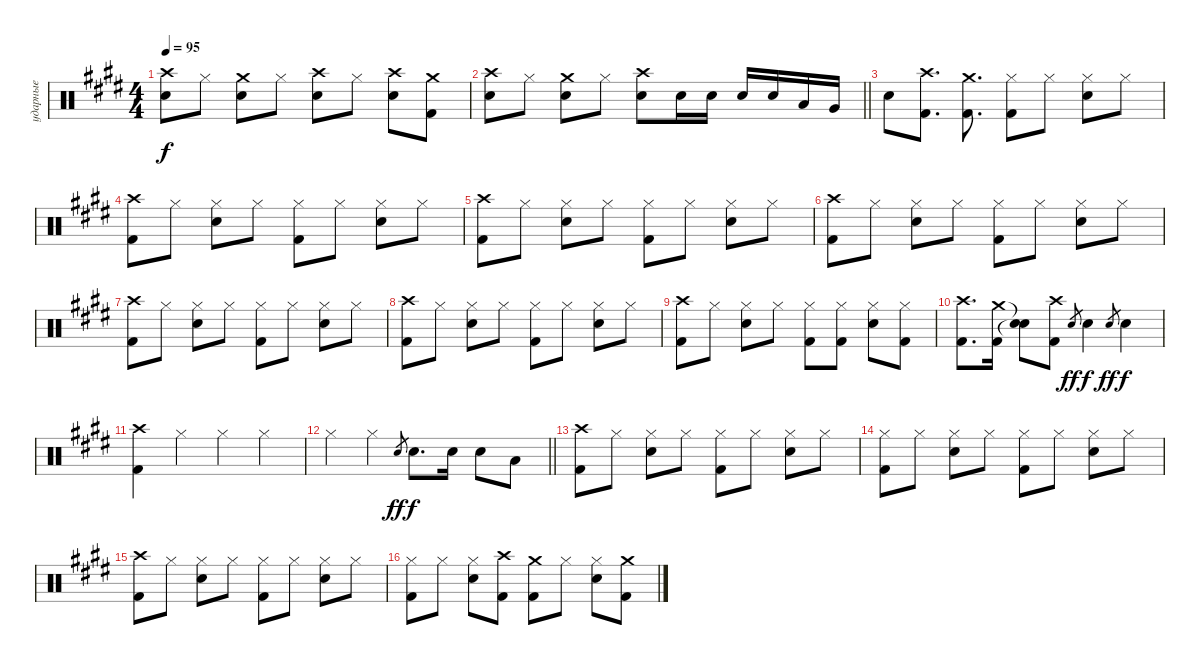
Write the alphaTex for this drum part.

\track ("ударные" "ударные") {instrument percussion}
\staff {score}
\articulation defaults
\ts (4 4)
\tempo 95
\clef neutral
\ks e
("Crash high (hit)" "Snare (hit) 2").8{dy f} "Hi-Hat (closed)".8 ("Crash medium (hit)" "Snare (hit) 2").8 "Hi-Hat (closed)".8 ("Crash high (hit)" "Snare (hit) 2").8 "Hi-Hat (closed)".8 ("Crash high (hit)" "Snare (hit) 2").8 ("Crash medium (hit)" "Kick (hit) 2").8 |
\barLineRight lightlight
("Crash high (hit)" "Snare (hit) 2").8 "Hi-Hat (closed)".8 ("Crash medium (hit)" "Snare (hit) 2").8 "Hi-Hat (closed)".8 ("Crash high (hit)" "Snare (hit) 2").8 "Snare (hit) 2".16 "Snare (hit) 2".16 "Snare (hit) 2".16 "Snare (hit) 2".16 "Low Tom (hit)".16 "Very Low Tom (hit)".16 |
\section ("" "")
"Snare (hit) 2".8 ("Crash high (hit)" "Kick (hit) 2").8{d} ("Crash medium (hit)" "Kick (hit) 2").8{d} ("Hi-Hat (closed)" "Kick (hit) 2").8 "Hi-Hat (closed)".8 ("Hi-Hat (closed)" "Snare (hit) 2").8 "Hi-Hat (closed)".8 |
("Crash high (hit)" "Kick (hit) 2").8 "Hi-Hat (closed)".8 ("Hi-Hat (closed)" "Snare (hit) 2").8 "Hi-Hat (closed)".8 ("Hi-Hat (closed)" "Kick (hit) 2").8 "Hi-Hat (closed)".8 ("Hi-Hat (closed)" "Snare (hit) 2").8 "Hi-Hat (closed)".8 |
("Crash high (hit)" "Kick (hit) 2").8 "Hi-Hat (closed)".8 ("Hi-Hat (closed)" "Snare (hit) 2").8 "Hi-Hat (closed)".8 ("Hi-Hat (closed)" "Kick (hit) 2").8 "Hi-Hat (closed)".8 ("Hi-Hat (closed)" "Snare (hit) 2").8 "Hi-Hat (closed)".8 |
("Crash high (hit)" "Kick (hit) 2").8 "Hi-Hat (closed)".8 ("Hi-Hat (closed)" "Snare (hit) 2").8 "Hi-Hat (closed)".8 ("Hi-Hat (closed)" "Kick (hit) 2").8 "Hi-Hat (closed)".8 ("Hi-Hat (closed)" "Snare (hit) 2").8 "Hi-Hat (closed)".8 |
("Crash high (hit)" "Kick (hit) 2").8 "Hi-Hat (closed)".8 ("Hi-Hat (closed)" "Snare (hit) 2").8 "Hi-Hat (closed)".8 ("Hi-Hat (closed)" "Kick (hit) 2").8 "Hi-Hat (closed)".8 ("Hi-Hat (closed)" "Snare (hit) 2").8 "Hi-Hat (closed)".8 |
("Crash high (hit)" "Kick (hit) 2").8 "Hi-Hat (closed)".8 ("Hi-Hat (closed)" "Snare (hit) 2").8 "Hi-Hat (closed)".8 ("Hi-Hat (closed)" "Kick (hit) 2").8 "Hi-Hat (closed)".8 ("Hi-Hat (closed)" "Snare (hit) 2").8 "Hi-Hat (closed)".8 |
("Crash high (hit)" "Kick (hit) 2").8 "Hi-Hat (closed)".8 ("Hi-Hat (closed)" "Snare (hit) 2").8 "Hi-Hat (closed)".8 ("Hi-Hat (closed)" "Kick (hit) 2").8 ("Hi-Hat (closed)" "Kick (hit) 2").8 ("Hi-Hat (closed)" "Snare (hit) 2").8 ("Hi-Hat (closed)" "Kick (hit) 2").8 |
("Crash high (hit)" "Kick (hit) 2").8{d} ("Crash medium (hit)" "Kick (hit) 2").16 ("Snare (hit)"{t} "Snare (hit)"{t}).8 ("Crash high (hit)" "Kick (hit) 2").8 "Snare (hit) 2".8{gr dy ff} "Snare (hit) 2".4{dy f} "Snare (hit) 2".8{gr dy ff} "Snare (hit) 2".4{dy f} |
("Crash high (hit)" "Kick (hit) 2").4 "Hi-Hat (closed)".4 "Hi-Hat (closed)".4 "Hi-Hat (closed)".4 |
\barLineRight lightlight "Hi-Hat (closed)".4 "Hi-Hat (closed)".4 "Snare (hit) 2".8{gr dy ff} "Snare (hit) 2".8{d dy f} "Snare (hit) 2".16 "Snare (hit) 2".8 "Low Tom (hit)".8
|
\section ("" "")
("Crash high (hit)" "Kick (hit) 2").8 "Hi-Hat (closed)".8 ("Hi-Hat (closed)" "Snare (hit) 2").8 "Hi-Hat (closed)".8 ("Hi-Hat (closed)" "Kick (hit) 2").8 "Hi-Hat (closed)".8 ("Hi-Hat (closed)" "Snare (hit) 2").8 "Hi-Hat (closed)".8 |
("Hi-Hat (closed)" "Kick (hit) 2").8 "Hi-Hat (closed)".8 ("Hi-Hat (closed)" "Snare (hit) 2").8 "Hi-Hat (closed)".8 ("Hi-Hat (closed)" "Kick (hit) 2").8 "Hi-Hat (closed)".8 ("Hi-Hat (closed)" "Snare (hit) 2").8 "Hi-Hat (closed)".8 |
("Crash high (hit)" "Kick (hit) 2").8 "Hi-Hat (closed)".8 ("Hi-Hat (closed)" "Snare (hit) 2").8 "Hi-Hat (closed)".8 ("Hi-Hat (closed)" "Kick (hit) 2").8 "Hi-Hat (closed)".8 ("Hi-Hat (closed)" "Snare (hit) 2").8 "Hi-Hat (closed)".8 |
("Hi-Hat (closed)" "Kick (hit) 2").8 "Hi-Hat (closed)".8 ("Hi-Hat (closed)" "Snare (hit) 2").8 ("Crash high (hit)" "Kick (hit) 2").8 ("Crash medium (hit)" "Kick (hit) 2").8 "Hi-Hat (closed)".8 ("Hi-Hat (closed)" "Snare (hit) 2").8 ("Crash medium (hit)" "Kick (hit) 2").8
